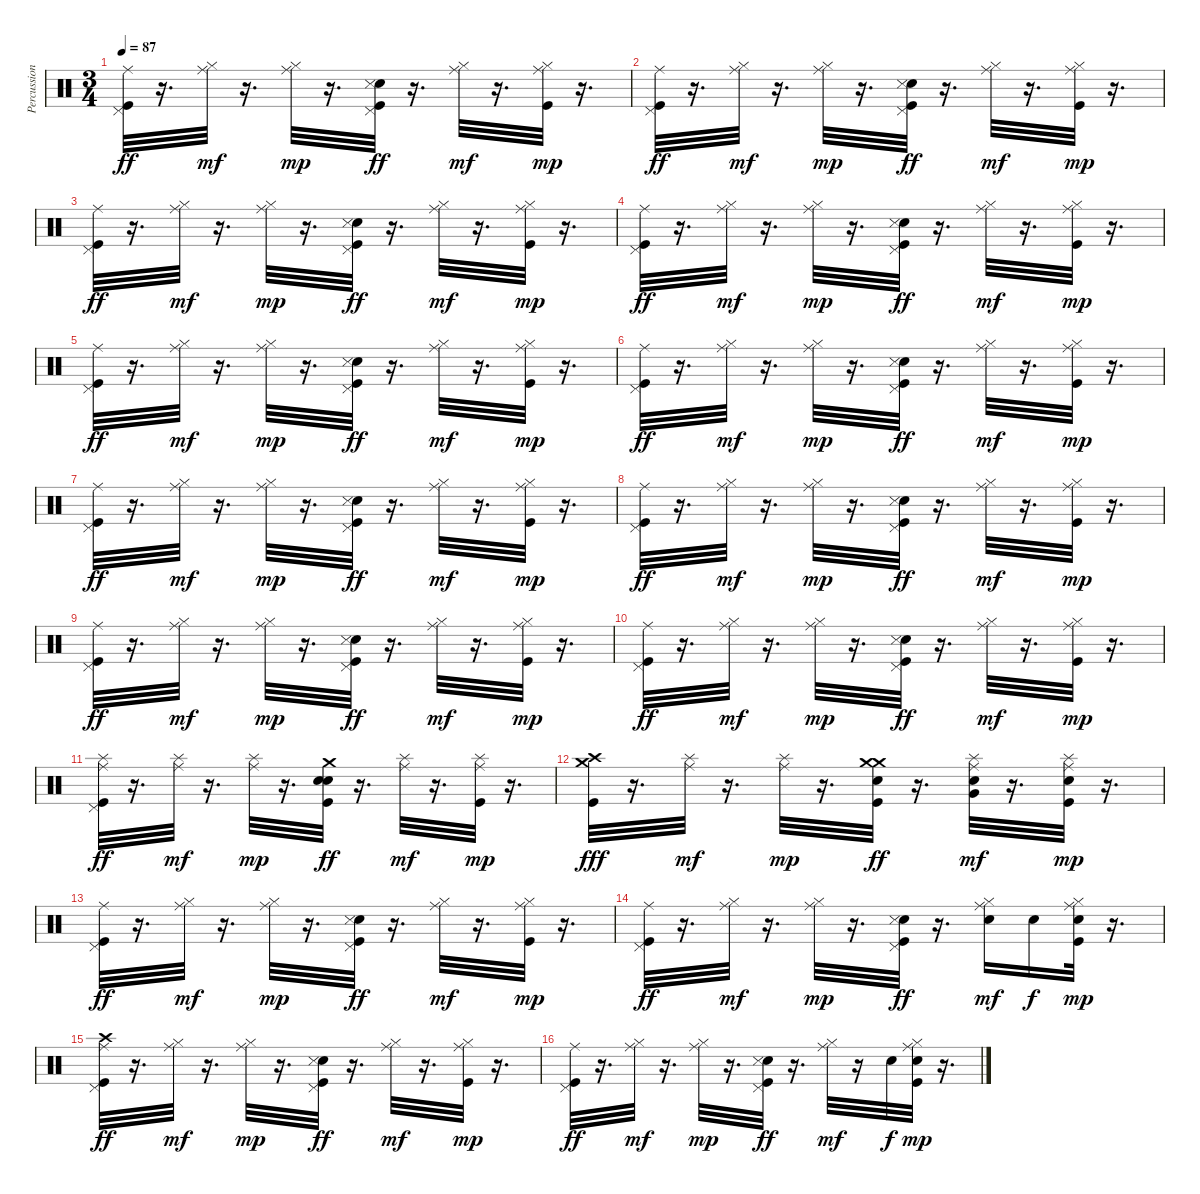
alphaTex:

\track ("Percussion" "Percussion") {instrument percussion}
\staff {score}
\articulation defaults
\ts (3 4)
\tempo 87
\clef neutral
\ks c
("Kick (hit)" "Ride (middle)" "Pedal Hi-Hat (hit)").32{dy ff} r.16{d} ("Hi-Hat (closed)" "Ride (middle)").32{dy mf} r.16{d} ("Hi-Hat (closed)" "Ride (middle)").32{dy mp} r.16{d} ("Kick (hit)" "Pedal Hi-Hat (hit)" "Electric Snare (hit)" "Snare (side stick) 3").32{dy ff} r.16{d} ("Hi-Hat (closed)" "Ride (middle)").32{dy mf} r.16{d} ("Hi-Hat (closed)" "Ride (middle)" "Kick (hit)").32{dy mp} r.16{d} |
("Kick (hit)" "Ride (middle)" "Pedal Hi-Hat (hit)").32{dy ff} r.16{d} ("Hi-Hat (closed)" "Ride (middle)").32{dy mf} r.16{d} ("Hi-Hat (closed)" "Ride (middle)").32{dy mp} r.16{d} ("Kick (hit)" "Pedal Hi-Hat (hit)" "Electric Snare (hit)" "Snare (side stick) 3").32{dy ff} r.16{d} ("Hi-Hat (closed)" "Ride (middle)").32{dy mf} r.16{d} ("Hi-Hat (closed)" "Ride (middle)" "Kick (hit)").32{dy mp} r.16{d} |
("Kick (hit)" "Ride (middle)" "Pedal Hi-Hat (hit)").32{dy ff} r.16{d} ("Hi-Hat (closed)" "Ride (middle)").32{dy mf} r.16{d} ("Hi-Hat (closed)" "Ride (middle)").32{dy mp} r.16{d} ("Kick (hit)" "Pedal Hi-Hat (hit)" "Electric Snare (hit)" "Snare (side stick) 3").32{dy ff} r.16{d} ("Hi-Hat (closed)" "Ride (middle)").32{dy mf} r.16{d} ("Hi-Hat (closed)" "Ride (middle)" "Kick (hit)").32{dy mp} r.16{d} |
("Kick (hit)" "Ride (middle)" "Pedal Hi-Hat (hit)").32{dy ff} r.16{d} ("Hi-Hat (closed)" "Ride (middle)").32{dy mf} r.16{d} ("Hi-Hat (closed)" "Ride (middle)").32{dy mp} r.16{d} ("Kick (hit)" "Pedal Hi-Hat (hit)" "Electric Snare (hit)" "Snare (side stick) 3").32{dy ff} r.16{d} ("Hi-Hat (closed)" "Ride (middle)").32{dy mf} r.16{d} ("Hi-Hat (closed)" "Ride (middle)" "Kick (hit)").32{dy mp} r.16{d} |
("Kick (hit)" "Ride (middle)" "Pedal Hi-Hat (hit)").32{dy ff} r.16{d} ("Hi-Hat (closed)" "Ride (middle)").32{dy mf} r.16{d} ("Hi-Hat (closed)" "Ride (middle)").32{dy mp} r.16{d} ("Kick (hit)" "Pedal Hi-Hat (hit)" "Electric Snare (hit)" "Snare (side stick) 3").32{dy ff} r.16{d} ("Hi-Hat (closed)" "Ride (middle)").32{dy mf} r.16{d} ("Hi-Hat (closed)" "Ride (middle)" "Kick (hit)").32{dy mp} r.16{d} |
("Kick (hit)" "Ride (middle)" "Pedal Hi-Hat (hit)").32{dy ff} r.16{d} ("Hi-Hat (closed)" "Ride (middle)").32{dy mf} r.16{d} ("Hi-Hat (closed)" "Ride (middle)").32{dy mp} r.16{d} ("Kick (hit)" "Pedal Hi-Hat (hit)" "Electric Snare (hit)" "Snare (side stick) 3").32{dy ff} r.16{d} ("Hi-Hat (closed)" "Ride (middle)").32{dy mf} r.16{d} ("Hi-Hat (closed)" "Ride (middle)" "Kick (hit)").32{dy mp} r.16{d} |
("Kick (hit)" "Ride (middle)" "Pedal Hi-Hat (hit)").32{dy ff} r.16{d} ("Hi-Hat (closed)" "Ride (middle)").32{dy mf} r.16{d} ("Hi-Hat (closed)" "Ride (middle)").32{dy mp} r.16{d} ("Kick (hit)" "Pedal Hi-Hat (hit)" "Electric Snare (hit)" "Snare (side stick) 3").32{dy ff} r.16{d} ("Hi-Hat (closed)" "Ride (middle)").32{dy mf} r.16{d} ("Hi-Hat (closed)" "Ride (middle)" "Kick (hit)").32{dy mp} r.16{d} |
("Kick (hit)" "Ride (middle)" "Pedal Hi-Hat (hit)").32{dy ff} r.16{d} ("Hi-Hat (closed)" "Ride (middle)").32{dy mf} r.16{d} ("Hi-Hat (closed)" "Ride (middle)").32{dy mp} r.16{d} ("Kick (hit)" "Pedal Hi-Hat (hit)" "Electric Snare (hit)" "Snare (side stick) 3").32{dy ff} r.16{d} ("Hi-Hat (closed)" "Ride (middle)").32{dy mf} r.16{d} ("Hi-Hat (closed)" "Ride (middle)" "Kick (hit)").32{dy mp} r.16{d} |
("Kick (hit)" "Ride (middle)" "Pedal Hi-Hat (hit)").32{dy ff} r.16{d} ("Hi-Hat (closed)" "Ride (middle)").32{dy mf} r.16{d} ("Hi-Hat (closed)" "Ride (middle)").32{dy mp} r.16{d} ("Kick (hit)" "Pedal Hi-Hat (hit)" "Electric Snare (hit)" "Snare (side stick) 3").32{dy ff} r.16{d} ("Hi-Hat (closed)" "Ride (middle)").32{dy mf} r.16{d} ("Hi-Hat (closed)" "Ride (middle)" "Kick (hit)").32{dy mp} r.16{d} |
("Kick (hit)" "Ride (middle)" "Pedal Hi-Hat (hit)").32{dy ff} r.16{d} ("Hi-Hat (closed)" "Ride (middle)").32{dy mf} r.16{d} ("Hi-Hat (closed)" "Ride (middle)").32{dy mp} r.16{d} ("Kick (hit)" "Pedal Hi-Hat (hit)" "Electric Snare (hit)" "Snare (side stick) 3").32{dy ff} r.16{d} ("Hi-Hat (closed)" "Ride (middle)").32{dy mf} r.16{d} ("Hi-Hat (closed)" "Ride (middle)" "Kick (hit)").32{dy mp} r.16{d} |
("Kick (hit)" "Ride (middle)" "Pedal Hi-Hat (hit)" "Splash (hit)").32{dy ff} r.16{d} ("Splash (hit)" "Ride (middle)").32{dy mf} r.16{d} ("Splash (hit)" "Ride (middle)").32{dy mp} r.16{d} ("Kick (hit)" "Crash medium (hit)" "Snare (hit) 2" "Electric Snare (hit)").32{dy ff} r.16{d} ("Splash (hit)" "Ride (middle)").32{dy mf} r.16{d} ("Splash (hit)" "Ride (middle)" "Kick (hit)").32{dy mp} r.16{d} |
("Kick (hit)" "Crash high (hit)" "Crash medium (hit)").32{dy fff} r.16{d} ("Splash (hit)" "Ride (middle)").32{dy mf} r.16{d} ("Splash (hit)" "Ride (middle)").32{dy mp} r.16{d} ("Kick (hit)" "Crash medium (hit)" "Snare (hit) 2" "Crash medium (hit)").32{dy ff} r.16{d} ("Splash (hit)" "Ride (middle)" "Snare (hit) 2" "Very Low Tom (hit)").32{dy mf} r.16{d} ("Splash (hit)" "Ride (middle)" "Snare (hit) 2" "Kick (hit)").32{dy mp} r.16{d} |
("Kick (hit)" "Ride (middle)" "Pedal Hi-Hat (hit)").32{dy ff} r.16{d} ("Hi-Hat (closed)" "Ride (middle)").32{dy mf} r.16{d} ("Hi-Hat (closed)" "Ride (middle)").32{dy mp} r.16{d} ("Kick (hit)" "Pedal Hi-Hat (hit)" "Electric Snare (hit)" "Snare (side stick) 3").32{dy ff} r.16{d} ("Hi-Hat (closed)" "Ride (middle)").32{dy mf} r.16{d} ("Hi-Hat (closed)" "Ride (middle)" "Kick (hit)").32{dy mp} r.16{d} |
("Kick (hit)" "Ride (middle)" "Pedal Hi-Hat (hit)").32{dy ff} r.16{d} ("Hi-Hat (closed)" "Ride (middle)").32{dy mf} r.16{d} ("Hi-Hat (closed)" "Ride (middle)").32{dy mp} r.16{d} ("Kick (hit)" "Pedal Hi-Hat (hit)" "Electric Snare (hit)" "Snare (side stick) 3").32{dy ff} r.16{d} ("Hi-Hat (closed)" "Ride (middle)" "Electric Snare (hit)").16{dy mf} "Electric Snare (hit)".16{dy f} ("Hi-Hat (closed)" "Ride (middle)" "Electric Snare (hit)" "Kick (hit)").32{dy mp} r.16{d} |
("Kick (hit)" "Ride (middle)" "Pedal Hi-Hat (hit)" "Crash high (hit)").32{dy ff} r.16{d} ("Hi-Hat (closed)" "Ride (middle)").32{dy mf} r.16{d} ("Hi-Hat (closed)" "Ride (middle)").32{dy mp} r.16{d} ("Kick (hit)" "Pedal Hi-Hat (hit)" "Electric Snare (hit)" "Snare (side stick) 3").32{dy ff} r.16{d} ("Hi-Hat (closed)" "Ride (middle)").32{dy mf} r.16{d} ("Hi-Hat (closed)" "Ride (middle)" "Kick (hit)").32{dy mp} r.16{d} |
("Kick (hit)" "Ride (middle)" "Pedal Hi-Hat (hit)").32{dy ff} r.16{d} ("Hi-Hat (closed)" "Ride (middle)").32{dy mf} r.16{d} ("Hi-Hat (closed)" "Ride (middle)").32{dy mp} r.16{d} ("Kick (hit)" "Pedal Hi-Hat (hit)" "Electric Snare (hit)" "Snare (side stick) 3").32{dy ff} r.16{d} ("Hi-Hat (closed)" "Ride (middle)").32{dy mf} r.16 "Electric Snare (hit)".32{dy f} ("Hi-Hat (closed)" "Ride (middle)" "Electric Snare (hit)" "Kick (hit)").32{dy mp} r.16{d}
